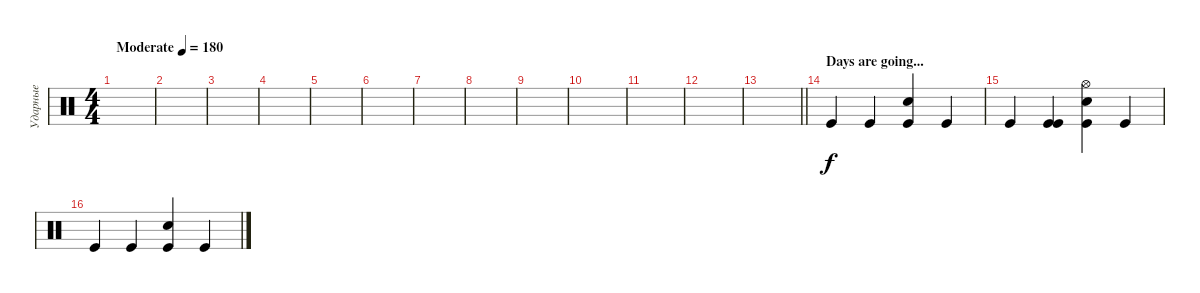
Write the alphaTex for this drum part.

\track ("Ударные" "Ударные") {instrument percussion}
\staff {score}
\articulation defaults
\ts (4 4)
\tempo (180 "Moderate")
\clef neutral
\ks c
|
|
|
|
|
|
|
|
|
|
|
|
\barLineRight lightlight
|
\section ("" "Days are going...")
"Kick (hit)".4 "Kick (hit)".4 ("Snare (hit) 2" "Kick (hit)").4 "Kick (hit)".4 |
"Kick (hit)".4 ("Kick (hit)" "Kick (hit)").4 ("Kick (hit)" "Snare (hit) 2" "Hi-Hat (open)").4 "Kick (hit)".4 |
"Kick (hit)".4 "Kick (hit)".4 ("Snare (hit) 2" "Kick (hit)").4 "Kick (hit)".4
